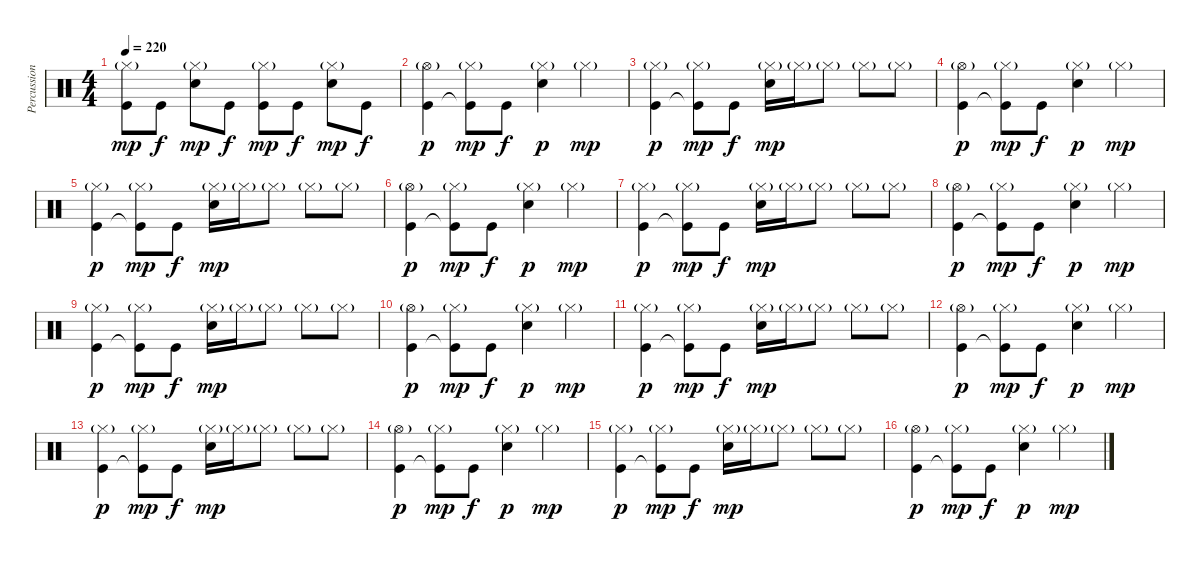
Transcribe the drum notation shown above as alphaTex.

\track ("Percussion" "Percussion") {instrument percussion}
\staff {score}
\articulation defaults
\ts (4 4)
\tempo 220
\clef neutral
\ks c
("Hi-Hat (closed)"{g} "Kick (hit)").8{dy mp} "Kick (hit)".8{dy f} ("Hi-Hat (closed)"{g} "Electric Snare (hit)").8{dy mp} "Kick (hit)".8{dy f} ("Hi-Hat (closed)"{g} "Kick (hit)").8{dy mp} "Kick (hit)".8{dy f} ("Hi-Hat (closed)"{g} "Electric Snare (hit)").8{dy mp} "Kick (hit)".8{dy f} |
("Hi-Hat (open)"{g} "Kick (hit)").4{dy p} ("Hi-Hat (closed)"{g} "Kick (hit)"{t}).8{dy mp} "Kick (hit)".8{dy f} ("Hi-Hat (closed)"{g} "Electric Snare (hit)").4{dy p} "Hi-Hat (closed)"{g}.4{dy mp} |
("Hi-Hat (closed)"{g} "Kick (hit)").4{dy p} ("Hi-Hat (closed)"{g} "Kick (hit)"{t}).8{dy mp} "Kick (hit)".8{dy f} ("Hi-Hat (closed)"{g} "Electric Snare (hit)").16{dy mp} "Hi-Hat (closed)"{g}.16 "Hi-Hat (closed)"{g}.8 "Hi-Hat (closed)"{g}.8 "Hi-Hat (closed)"{g}.8 |
("Hi-Hat (open)"{g} "Kick (hit)").4{dy p} ("Hi-Hat (closed)"{g} "Kick (hit)"{t}).8{dy mp} "Kick (hit)".8{dy f} ("Hi-Hat (closed)"{g} "Electric Snare (hit)").4{dy p} "Hi-Hat (closed)"{g}.4{dy mp} |
("Hi-Hat (closed)"{g} "Kick (hit)").4{dy p} ("Hi-Hat (closed)"{g} "Kick (hit)"{t}).8{dy mp} "Kick (hit)".8{dy f} ("Hi-Hat (closed)"{g} "Electric Snare (hit)").16{dy mp} "Hi-Hat (closed)"{g}.16 "Hi-Hat (closed)"{g}.8 "Hi-Hat (closed)"{g}.8 "Hi-Hat (closed)"{g}.8 |
("Hi-Hat (open)"{g} "Kick (hit)").4{dy p} ("Hi-Hat (closed)"{g} "Kick (hit)"{t}).8{dy mp} "Kick (hit)".8{dy f} ("Hi-Hat (closed)"{g} "Electric Snare (hit)").4{dy p} "Hi-Hat (closed)"{g}.4{dy mp} |
("Hi-Hat (closed)"{g} "Kick (hit)").4{dy p} ("Hi-Hat (closed)"{g} "Kick (hit)"{t}).8{dy mp} "Kick (hit)".8{dy f} ("Hi-Hat (closed)"{g} "Electric Snare (hit)").16{dy mp} "Hi-Hat (closed)"{g}.16 "Hi-Hat (closed)"{g}.8 "Hi-Hat (closed)"{g}.8 "Hi-Hat (closed)"{g}.8 |
("Hi-Hat (open)"{g} "Kick (hit)").4{dy p} ("Hi-Hat (closed)"{g} "Kick (hit)"{t}).8{dy mp} "Kick (hit)".8{dy f} ("Hi-Hat (closed)"{g} "Electric Snare (hit)").4{dy p} "Hi-Hat (closed)"{g}.4{dy mp} |
("Hi-Hat (closed)"{g} "Kick (hit)").4{dy p} ("Hi-Hat (closed)"{g} "Kick (hit)"{t}).8{dy mp} "Kick (hit)".8{dy f} ("Hi-Hat (closed)"{g} "Electric Snare (hit)").16{dy mp} "Hi-Hat (closed)"{g}.16 "Hi-Hat (closed)"{g}.8 "Hi-Hat (closed)"{g}.8 "Hi-Hat (closed)"{g}.8 |
("Hi-Hat (open)"{g} "Kick (hit)").4{dy p} ("Hi-Hat (closed)"{g} "Kick (hit)"{t}).8{dy mp} "Kick (hit)".8{dy f} ("Hi-Hat (closed)"{g} "Electric Snare (hit)").4{dy p} "Hi-Hat (closed)"{g}.4{dy mp} |
("Hi-Hat (closed)"{g} "Kick (hit)").4{dy p} ("Hi-Hat (closed)"{g} "Kick (hit)"{t}).8{dy mp} "Kick (hit)".8{dy f} ("Hi-Hat (closed)"{g} "Electric Snare (hit)").16{dy mp} "Hi-Hat (closed)"{g}.16 "Hi-Hat (closed)"{g}.8 "Hi-Hat (closed)"{g}.8 "Hi-Hat (closed)"{g}.8 |
("Hi-Hat (open)"{g} "Kick (hit)").4{dy p} ("Hi-Hat (closed)"{g} "Kick (hit)"{t}).8{dy mp} "Kick (hit)".8{dy f} ("Hi-Hat (closed)"{g} "Electric Snare (hit)").4{dy p} "Hi-Hat (closed)"{g}.4{dy mp} |
("Hi-Hat (closed)"{g} "Kick (hit)").4{dy p} ("Hi-Hat (closed)"{g} "Kick (hit)"{t}).8{dy mp} "Kick (hit)".8{dy f} ("Hi-Hat (closed)"{g} "Electric Snare (hit)").16{dy mp} "Hi-Hat (closed)"{g}.16 "Hi-Hat (closed)"{g}.8 "Hi-Hat (closed)"{g}.8 "Hi-Hat (closed)"{g}.8 |
("Hi-Hat (open)"{g} "Kick (hit)").4{dy p} ("Hi-Hat (closed)"{g} "Kick (hit)"{t}).8{dy mp} "Kick (hit)".8{dy f} ("Hi-Hat (closed)"{g} "Electric Snare (hit)").4{dy p} "Hi-Hat (closed)"{g}.4{dy mp} |
("Hi-Hat (closed)"{g} "Kick (hit)").4{dy p} ("Hi-Hat (closed)"{g} "Kick (hit)"{t}).8{dy mp} "Kick (hit)".8{dy f} ("Hi-Hat (closed)"{g} "Electric Snare (hit)").16{dy mp} "Hi-Hat (closed)"{g}.16 "Hi-Hat (closed)"{g}.8 "Hi-Hat (closed)"{g}.8 "Hi-Hat (closed)"{g}.8 |
("Hi-Hat (open)"{g} "Kick (hit)").4{dy p} ("Hi-Hat (closed)"{g} "Kick (hit)"{t}).8{dy mp} "Kick (hit)".8{dy f} ("Hi-Hat (closed)"{g} "Electric Snare (hit)").4{dy p} "Hi-Hat (closed)"{g}.4{dy mp}
